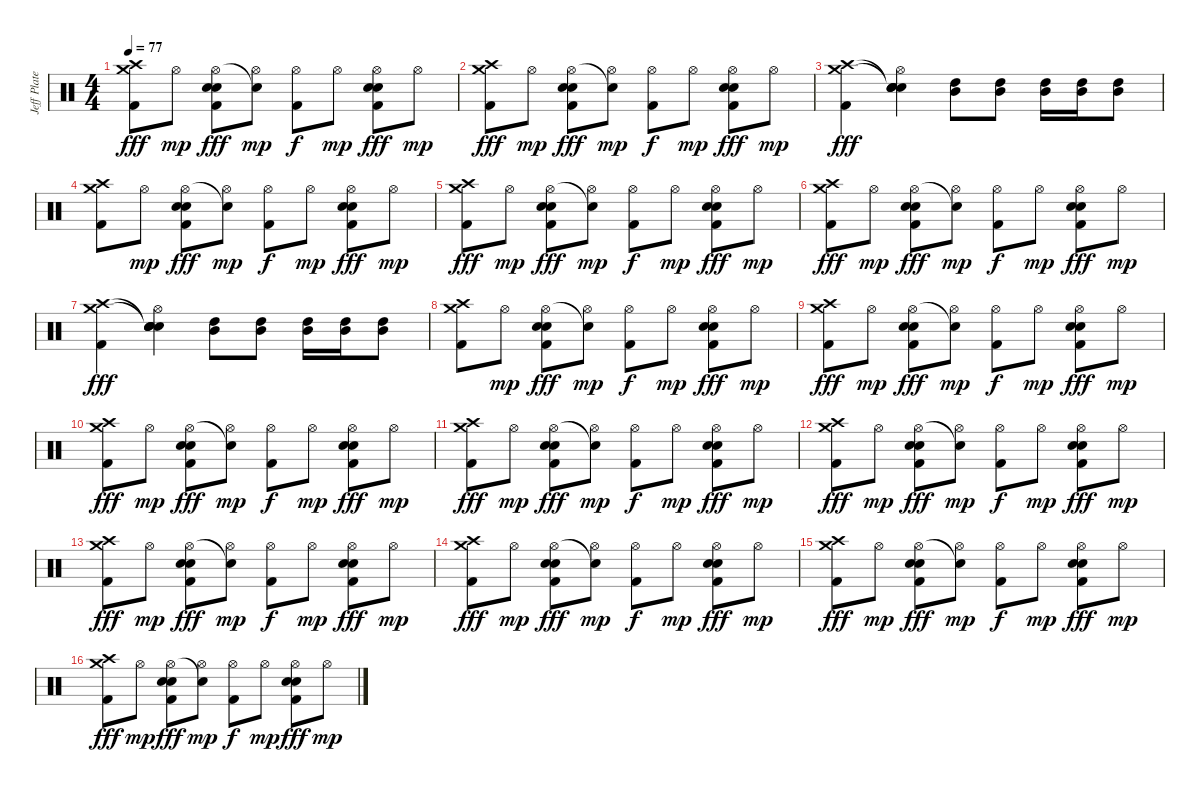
\track ("Jeff Plate" "Jeff Plate") {instrument percussion}
\staff {score}
\articulation defaults
\ts (4 4)
\tempo 77
\clef neutral
\ks c
("Crash medium (hit)" "Crash high (hit)" "Kick (hit) 2").8{dy fff} "Hi-Hat (open)".8{dy mp} ("Hi-Hat (open)" "Electric Snare (hit)" "Electric Snare (hit)" "Kick (hit) 2").8{dy fff} ("Snare (hit)"{t} "Hi-Hat (open)").8{dy mp} ("Hi-Hat (open)" "Kick (hit) 2").8{dy f} "Hi-Hat (open)".8{dy mp} ("Hi-Hat (open)" "Electric Snare (hit)" "Electric Snare (hit)" "Kick (hit) 2").8{dy fff} "Hi-Hat (open)".8{dy mp} |
("Crash medium (hit)" "Crash high (hit)" "Kick (hit) 2").8{dy fff} "Hi-Hat (open)".8{dy mp} ("Hi-Hat (open)" "Electric Snare (hit)" "Electric Snare (hit)" "Kick (hit) 2").8{dy fff} ("Snare (hit)"{t} "Hi-Hat (open)").8{dy mp} ("Hi-Hat (open)" "Kick (hit) 2").8{dy f} "Hi-Hat (open)".8{dy mp} ("Hi-Hat (open)" "Electric Snare (hit)" "Electric Snare (hit)" "Kick (hit) 2").8{dy fff} "Hi-Hat (open)".8{dy mp} |
("Crash medium (hit)" "Crash high (hit)" "Kick (hit) 2").4{dy fff} ("Snare (hit)"{t} "Snare (hit)"{t} "Hi-Hat (open)" "Electric Snare (hit)" "Electric Snare (hit)").4 ("Mid Tom (hit)" "High Tom (hit)").8 ("Mid Tom (hit)" "High Tom (hit)").8 ("Mid Tom (hit)" "High Tom (hit)").16 ("Mid Tom (hit)" "High Tom (hit)").16 ("Mid Tom (hit)" "High Tom (hit)").8 |
("Crash medium (hit)" "Crash high (hit)" "Kick (hit) 2").8 "Hi-Hat (open)".8{dy mp} ("Hi-Hat (open)" "Electric Snare (hit)" "Electric Snare (hit)" "Kick (hit) 2").8{dy fff} ("Snare (hit)"{t} "Hi-Hat (open)").8{dy mp} ("Hi-Hat (open)" "Kick (hit) 2").8{dy f} "Hi-Hat (open)".8{dy mp} ("Hi-Hat (open)" "Electric Snare (hit)" "Electric Snare (hit)" "Kick (hit) 2").8{dy fff} "Hi-Hat (open)".8{dy mp} |
("Crash medium (hit)" "Crash high (hit)" "Kick (hit) 2").8{dy fff} "Hi-Hat (open)".8{dy mp} ("Hi-Hat (open)" "Electric Snare (hit)" "Electric Snare (hit)" "Kick (hit) 2").8{dy fff} ("Snare (hit)"{t} "Hi-Hat (open)").8{dy mp} ("Hi-Hat (open)" "Kick (hit) 2").8{dy f} "Hi-Hat (open)".8{dy mp} ("Hi-Hat (open)" "Electric Snare (hit)" "Electric Snare (hit)" "Kick (hit) 2").8{dy fff} "Hi-Hat (open)".8{dy mp} |
("Crash medium (hit)" "Crash high (hit)" "Kick (hit) 2").8{dy fff} "Hi-Hat (open)".8{dy mp} ("Hi-Hat (open)" "Electric Snare (hit)" "Electric Snare (hit)" "Kick (hit) 2").8{dy fff} ("Snare (hit)"{t} "Hi-Hat (open)").8{dy mp} ("Hi-Hat (open)" "Kick (hit) 2").8{dy f} "Hi-Hat (open)".8{dy mp} ("Hi-Hat (open)" "Electric Snare (hit)" "Electric Snare (hit)" "Kick (hit) 2").8{dy fff} "Hi-Hat (open)".8{dy mp} |
("Crash medium (hit)" "Crash high (hit)" "Kick (hit) 2").4{dy fff} ("Snare (hit)"{t} "Snare (hit)"{t} "Hi-Hat (open)" "Electric Snare (hit)" "Electric Snare (hit)").4 ("Mid Tom (hit)" "High Tom (hit)").8 ("Mid Tom (hit)" "High Tom (hit)").8 ("Mid Tom (hit)" "High Tom (hit)").16 ("Mid Tom (hit)" "High Tom (hit)").16 ("Mid Tom (hit)" "High Tom (hit)").8 |
("Crash medium (hit)" "Crash high (hit)" "Kick (hit) 2").8 "Hi-Hat (open)".8{dy mp} ("Hi-Hat (open)" "Electric Snare (hit)" "Electric Snare (hit)" "Kick (hit) 2").8{dy fff} ("Snare (hit)"{t} "Hi-Hat (open)").8{dy mp} ("Hi-Hat (open)" "Kick (hit) 2").8{dy f} "Hi-Hat (open)".8{dy mp} ("Hi-Hat (open)" "Electric Snare (hit)" "Electric Snare (hit)" "Kick (hit) 2").8{dy fff} "Hi-Hat (open)".8{dy mp} |
("Crash medium (hit)" "Crash high (hit)" "Kick (hit) 2").8{dy fff} "Hi-Hat (open)".8{dy mp} ("Hi-Hat (open)" "Electric Snare (hit)" "Electric Snare (hit)" "Kick (hit) 2").8{dy fff} ("Snare (hit)"{t} "Hi-Hat (open)").8{dy mp} ("Hi-Hat (open)" "Kick (hit) 2").8{dy f} "Hi-Hat (open)".8{dy mp} ("Hi-Hat (open)" "Electric Snare (hit)" "Electric Snare (hit)" "Kick (hit) 2").8{dy fff} "Hi-Hat (open)".8{dy mp} |
("Crash medium (hit)" "Crash high (hit)" "Kick (hit) 2").8{dy fff} "Hi-Hat (open)".8{dy mp} ("Hi-Hat (open)" "Electric Snare (hit)" "Electric Snare (hit)" "Kick (hit) 2").8{dy fff} ("Snare (hit)"{t} "Hi-Hat (open)").8{dy mp} ("Hi-Hat (open)" "Kick (hit) 2").8{dy f} "Hi-Hat (open)".8{dy mp} ("Hi-Hat (open)" "Electric Snare (hit)" "Electric Snare (hit)" "Kick (hit) 2").8{dy fff} "Hi-Hat (open)".8{dy mp} |
("Crash medium (hit)" "Crash high (hit)" "Kick (hit) 2").8{dy fff} "Hi-Hat (open)".8{dy mp} ("Hi-Hat (open)" "Electric Snare (hit)" "Electric Snare (hit)" "Kick (hit) 2").8{dy fff} ("Snare (hit)"{t} "Hi-Hat (open)").8{dy mp} ("Hi-Hat (open)" "Kick (hit) 2").8{dy f} "Hi-Hat (open)".8{dy mp} ("Hi-Hat (open)" "Electric Snare (hit)" "Electric Snare (hit)" "Kick (hit) 2").8{dy fff} "Hi-Hat (open)".8{dy mp} |
("Crash medium (hit)" "Crash high (hit)" "Kick (hit) 2").8{dy fff} "Hi-Hat (open)".8{dy mp} ("Hi-Hat (open)" "Electric Snare (hit)" "Electric Snare (hit)" "Kick (hit) 2").8{dy fff} ("Snare (hit)"{t} "Hi-Hat (open)").8{dy mp} ("Hi-Hat (open)" "Kick (hit) 2").8{dy f} "Hi-Hat (open)".8{dy mp} ("Hi-Hat (open)" "Electric Snare (hit)" "Electric Snare (hit)" "Kick (hit) 2").8{dy fff} "Hi-Hat (open)".8{dy mp} |
("Crash medium (hit)" "Crash high (hit)" "Kick (hit) 2").8{dy fff} "Hi-Hat (open)".8{dy mp} ("Hi-Hat (open)" "Electric Snare (hit)" "Electric Snare (hit)" "Kick (hit) 2").8{dy fff} ("Snare (hit)"{t} "Hi-Hat (open)").8{dy mp} ("Hi-Hat (open)" "Kick (hit) 2").8{dy f} "Hi-Hat (open)".8{dy mp} ("Hi-Hat (open)" "Electric Snare (hit)" "Electric Snare (hit)" "Kick (hit) 2").8{dy fff} "Hi-Hat (open)".8{dy mp} |
("Crash medium (hit)" "Crash high (hit)" "Kick (hit) 2").8{dy fff} "Hi-Hat (open)".8{dy mp} ("Hi-Hat (open)" "Electric Snare (hit)" "Electric Snare (hit)" "Kick (hit) 2").8{dy fff} ("Snare (hit)"{t} "Hi-Hat (open)").8{dy mp} ("Hi-Hat (open)" "Kick (hit) 2").8{dy f} "Hi-Hat (open)".8{dy mp} ("Hi-Hat (open)" "Electric Snare (hit)" "Electric Snare (hit)" "Kick (hit) 2").8{dy fff} "Hi-Hat (open)".8{dy mp} |
("Crash medium (hit)" "Crash high (hit)" "Kick (hit) 2").8{dy fff} "Hi-Hat (open)".8{dy mp} ("Hi-Hat (open)" "Electric Snare (hit)" "Electric Snare (hit)" "Kick (hit) 2").8{dy fff} ("Snare (hit)"{t} "Hi-Hat (open)").8{dy mp} ("Hi-Hat (open)" "Kick (hit) 2").8{dy f} "Hi-Hat (open)".8{dy mp} ("Hi-Hat (open)" "Electric Snare (hit)" "Electric Snare (hit)" "Kick (hit) 2").8{dy fff} "Hi-Hat (open)".8{dy mp} |
("Crash medium (hit)" "Crash high (hit)" "Kick (hit) 2").8{dy fff} "Hi-Hat (open)".8{dy mp} ("Hi-Hat (open)" "Electric Snare (hit)" "Electric Snare (hit)" "Kick (hit) 2").8{dy fff} ("Snare (hit)"{t} "Hi-Hat (open)").8{dy mp} ("Hi-Hat (open)" "Kick (hit) 2").8{dy f} "Hi-Hat (open)".8{dy mp} ("Hi-Hat (open)" "Electric Snare (hit)" "Electric Snare (hit)" "Kick (hit) 2").8{dy fff} "Hi-Hat (open)".8{dy mp}
